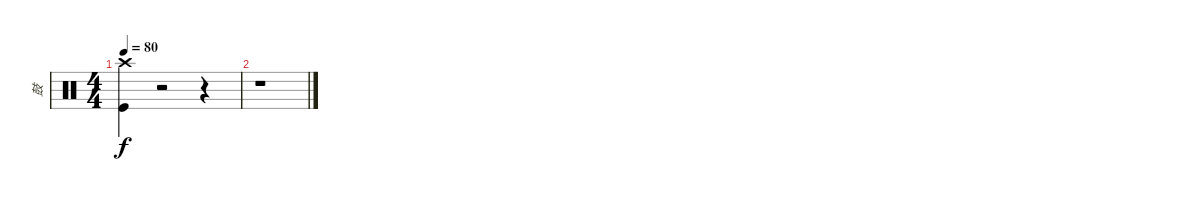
\track ("鼓" "鼓") {instrument percussion}
\staff {score}
\articulation defaults
\ts (4 4)
\tempo 80
\clef neutral
\ks c
("Crash high (hit)" "Kick (hit)").4{dy f} r.2 r.4 |
r.1
